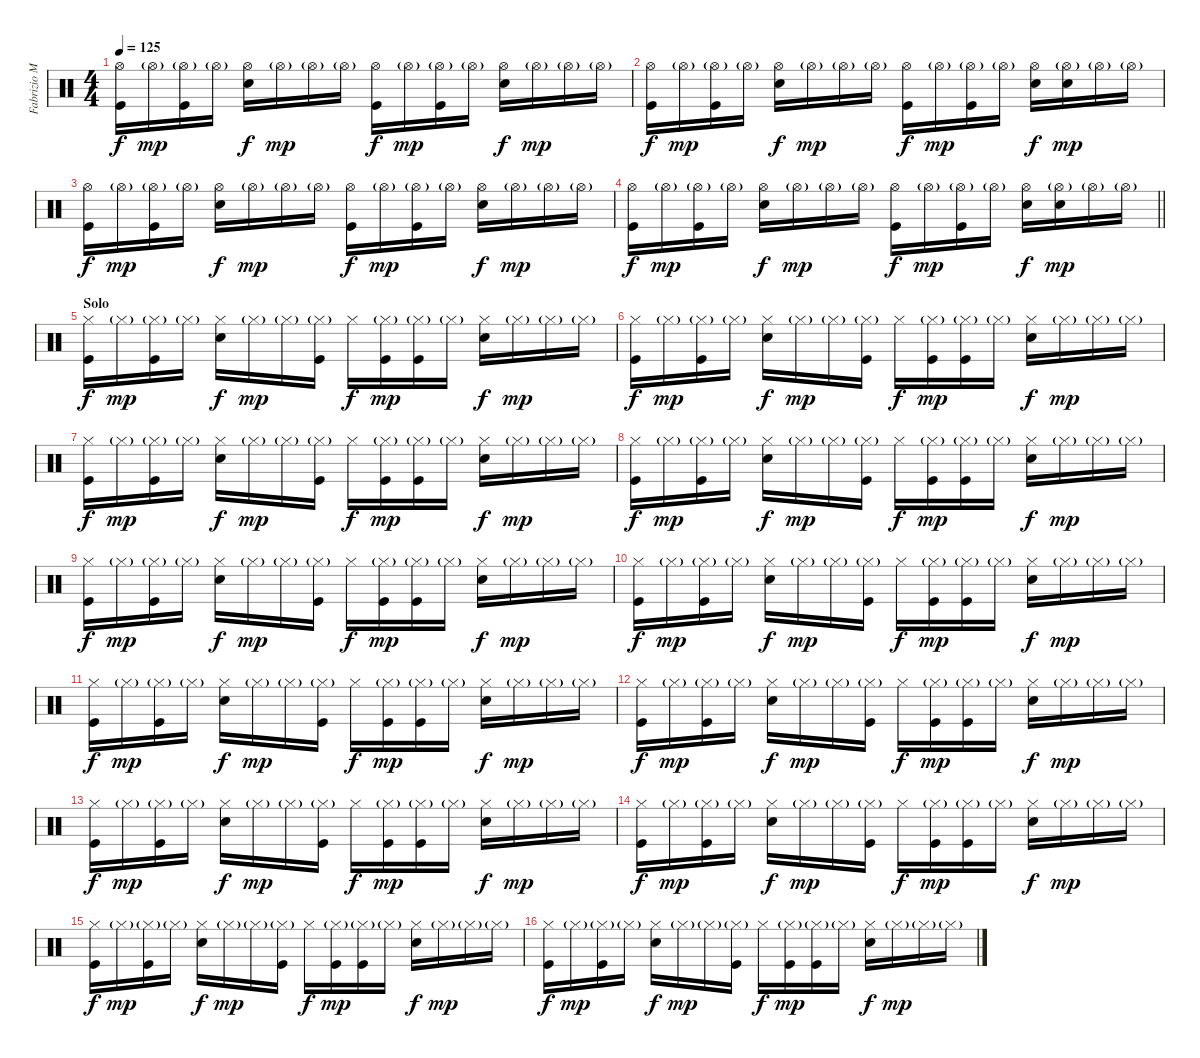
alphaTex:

\track ("Fabrizio Moretti" "Fabrizio M") {instrument percussion}
\staff {score}
\articulation defaults
\ts (4 4)
\tempo 125
\clef neutral
\ks c
("Hi-Hat (open)" "Kick (hit)").16{dy f} "Hi-Hat (open)"{g}.16{dy mp} ("Hi-Hat (open)"{g} "Kick (hit)").16 "Hi-Hat (open)"{g}.16 ("Hi-Hat (open)" "Electric Snare (hit)").16{dy f} "Hi-Hat (open)"{g}.16{dy mp} "Hi-Hat (open)"{g}.16 "Hi-Hat (open)"{g}.16 ("Hi-Hat (open)" "Kick (hit)").16{dy f} "Hi-Hat (open)"{g}.16{dy mp} ("Hi-Hat (open)"{g} "Kick (hit)").16 "Hi-Hat (open)"{g}.16 ("Hi-Hat (open)" "Electric Snare (hit)").16{dy f} "Hi-Hat (open)"{g}.16{dy mp} "Hi-Hat (open)"{g}.16 "Hi-Hat (open)"{g}.16 |
("Hi-Hat (open)" "Kick (hit)").16{dy f} "Hi-Hat (open)"{g}.16{dy mp} ("Hi-Hat (open)"{g} "Kick (hit)").16 "Hi-Hat (open)"{g}.16 ("Hi-Hat (open)" "Electric Snare (hit)").16{dy f} "Hi-Hat (open)"{g}.16{dy mp} "Hi-Hat (open)"{g}.16 "Hi-Hat (open)"{g}.16 ("Hi-Hat (open)" "Kick (hit)").16{dy f} "Hi-Hat (open)"{g}.16{dy mp} ("Hi-Hat (open)"{g} "Kick (hit)").16 "Hi-Hat (open)"{g}.16 ("Hi-Hat (open)" "Electric Snare (hit)").16{dy f} ("Hi-Hat (open)"{g} "Electric Snare (hit)").16{dy mp} "Hi-Hat (open)"{g}.16 "Hi-Hat (open)"{g}.16 |
("Hi-Hat (open)" "Kick (hit)").16{dy f} "Hi-Hat (open)"{g}.16{dy mp} ("Hi-Hat (open)"{g} "Kick (hit)").16 "Hi-Hat (open)"{g}.16 ("Hi-Hat (open)" "Electric Snare (hit)").16{dy f} "Hi-Hat (open)"{g}.16{dy mp} "Hi-Hat (open)"{g}.16 "Hi-Hat (open)"{g}.16 ("Hi-Hat (open)" "Kick (hit)").16{dy f} "Hi-Hat (open)"{g}.16{dy mp} ("Hi-Hat (open)"{g} "Kick (hit)").16 "Hi-Hat (open)"{g}.16 ("Hi-Hat (open)" "Electric Snare (hit)").16{dy f} "Hi-Hat (open)"{g}.16{dy mp} "Hi-Hat (open)"{g}.16 "Hi-Hat (open)"{g}.16 |
\barLineRight lightlight
("Hi-Hat (open)" "Kick (hit)").16{dy f} "Hi-Hat (open)"{g}.16{dy mp} ("Hi-Hat (open)"{g} "Kick (hit)").16 "Hi-Hat (open)"{g}.16 ("Hi-Hat (open)" "Electric Snare (hit)").16{dy f} "Hi-Hat (open)"{g}.16{dy mp} "Hi-Hat (open)"{g}.16 "Hi-Hat (open)"{g}.16 ("Hi-Hat (open)" "Kick (hit)").16{dy f} "Hi-Hat (open)"{g}.16{dy mp} ("Hi-Hat (open)"{g} "Kick (hit)").16 "Hi-Hat (open)"{g}.16 ("Hi-Hat (open)" "Electric Snare (hit)").16{dy f} ("Hi-Hat (open)"{g} "Electric Snare (hit)").16{dy mp} "Hi-Hat (open)"{g}.16 "Hi-Hat (open)"{g}.16 |
\section ("" "Solo")
("Hi-Hat (closed)" "Kick (hit)").16{dy f} "Hi-Hat (closed)"{g}.16{dy mp} ("Hi-Hat (closed)"{g} "Kick (hit)").16 "Hi-Hat (closed)"{g}.16 ("Hi-Hat (closed)" "Electric Snare (hit)").16{dy f} "Hi-Hat (closed)"{g}.16{dy mp} "Hi-Hat (closed)"{g}.16 ("Hi-Hat (closed)"{g} "Kick (hit)").16 "Hi-Hat (closed)".16{dy f} ("Hi-Hat (closed)"{g} "Kick (hit)").16{dy mp} ("Hi-Hat (closed)"{g} "Kick (hit)").16 "Hi-Hat (closed)"{g}.16 ("Hi-Hat (closed)" "Electric Snare (hit)").16{dy f} "Hi-Hat (closed)"{g}.16{dy mp} "Hi-Hat (closed)"{g}.16 "Hi-Hat (closed)"{g}.16 |
("Hi-Hat (closed)" "Kick (hit)").16{dy f} "Hi-Hat (closed)"{g}.16{dy mp} ("Hi-Hat (closed)"{g} "Kick (hit)").16 "Hi-Hat (closed)"{g}.16 ("Hi-Hat (closed)" "Electric Snare (hit)").16{dy f} "Hi-Hat (closed)"{g}.16{dy mp} "Hi-Hat (closed)"{g}.16 ("Hi-Hat (closed)"{g} "Kick (hit)").16 "Hi-Hat (closed)".16{dy f} ("Hi-Hat (closed)"{g} "Kick (hit)").16{dy mp} ("Hi-Hat (closed)"{g} "Kick (hit)").16 "Hi-Hat (closed)"{g}.16 ("Hi-Hat (closed)" "Electric Snare (hit)").16{dy f} "Hi-Hat (closed)"{g}.16{dy mp} "Hi-Hat (closed)"{g}.16 "Hi-Hat (closed)"{g}.16 |
("Hi-Hat (closed)" "Kick (hit)").16{dy f} "Hi-Hat (closed)"{g}.16{dy mp} ("Hi-Hat (closed)"{g} "Kick (hit)").16 "Hi-Hat (closed)"{g}.16 ("Hi-Hat (closed)" "Electric Snare (hit)").16{dy f} "Hi-Hat (closed)"{g}.16{dy mp} "Hi-Hat (closed)"{g}.16 ("Hi-Hat (closed)"{g} "Kick (hit)").16 "Hi-Hat (closed)".16{dy f} ("Hi-Hat (closed)"{g} "Kick (hit)").16{dy mp} ("Hi-Hat (closed)"{g} "Kick (hit)").16 "Hi-Hat (closed)"{g}.16 ("Hi-Hat (closed)" "Electric Snare (hit)").16{dy f} "Hi-Hat (closed)"{g}.16{dy mp} "Hi-Hat (closed)"{g}.16 "Hi-Hat (closed)"{g}.16 |
("Hi-Hat (closed)" "Kick (hit)").16{dy f} "Hi-Hat (closed)"{g}.16{dy mp} ("Hi-Hat (closed)"{g} "Kick (hit)").16 "Hi-Hat (closed)"{g}.16 ("Hi-Hat (closed)" "Electric Snare (hit)").16{dy f} "Hi-Hat (closed)"{g}.16{dy mp} "Hi-Hat (closed)"{g}.16 ("Hi-Hat (closed)"{g} "Kick (hit)").16 "Hi-Hat (closed)".16{dy f} ("Hi-Hat (closed)"{g} "Kick (hit)").16{dy mp} ("Hi-Hat (closed)"{g} "Kick (hit)").16 "Hi-Hat (closed)"{g}.16 ("Hi-Hat (closed)" "Electric Snare (hit)").16{dy f} "Hi-Hat (closed)"{g}.16{dy mp} "Hi-Hat (closed)"{g}.16 "Hi-Hat (closed)"{g}.16 |
("Hi-Hat (closed)" "Kick (hit)").16{dy f} "Hi-Hat (closed)"{g}.16{dy mp} ("Hi-Hat (closed)"{g} "Kick (hit)").16 "Hi-Hat (closed)"{g}.16 ("Hi-Hat (closed)" "Electric Snare (hit)").16{dy f} "Hi-Hat (closed)"{g}.16{dy mp} "Hi-Hat (closed)"{g}.16 ("Hi-Hat (closed)"{g} "Kick (hit)").16 "Hi-Hat (closed)".16{dy f} ("Hi-Hat (closed)"{g} "Kick (hit)").16{dy mp} ("Hi-Hat (closed)"{g} "Kick (hit)").16 "Hi-Hat (closed)"{g}.16 ("Hi-Hat (closed)" "Electric Snare (hit)").16{dy f} "Hi-Hat (closed)"{g}.16{dy mp} "Hi-Hat (closed)"{g}.16 "Hi-Hat (closed)"{g}.16 |
("Hi-Hat (closed)" "Kick (hit)").16{dy f} "Hi-Hat (closed)"{g}.16{dy mp} ("Hi-Hat (closed)"{g} "Kick (hit)").16 "Hi-Hat (closed)"{g}.16 ("Hi-Hat (closed)" "Electric Snare (hit)").16{dy f} "Hi-Hat (closed)"{g}.16{dy mp} "Hi-Hat (closed)"{g}.16 ("Hi-Hat (closed)"{g} "Kick (hit)").16 "Hi-Hat (closed)".16{dy f} ("Hi-Hat (closed)"{g} "Kick (hit)").16{dy mp} ("Hi-Hat (closed)"{g} "Kick (hit)").16 "Hi-Hat (closed)"{g}.16 ("Hi-Hat (closed)" "Electric Snare (hit)").16{dy f} "Hi-Hat (closed)"{g}.16{dy mp} "Hi-Hat (closed)"{g}.16 "Hi-Hat (closed)"{g}.16 |
("Hi-Hat (closed)" "Kick (hit)").16{dy f} "Hi-Hat (closed)"{g}.16{dy mp} ("Hi-Hat (closed)"{g} "Kick (hit)").16 "Hi-Hat (closed)"{g}.16 ("Hi-Hat (closed)" "Electric Snare (hit)").16{dy f} "Hi-Hat (closed)"{g}.16{dy mp} "Hi-Hat (closed)"{g}.16 ("Hi-Hat (closed)"{g} "Kick (hit)").16 "Hi-Hat (closed)".16{dy f} ("Hi-Hat (closed)"{g} "Kick (hit)").16{dy mp} ("Hi-Hat (closed)"{g} "Kick (hit)").16 "Hi-Hat (closed)"{g}.16 ("Hi-Hat (closed)" "Electric Snare (hit)").16{dy f} "Hi-Hat (closed)"{g}.16{dy mp} "Hi-Hat (closed)"{g}.16 "Hi-Hat (closed)"{g}.16 |
("Hi-Hat (closed)" "Kick (hit)").16{dy f} "Hi-Hat (closed)"{g}.16{dy mp} ("Hi-Hat (closed)"{g} "Kick (hit)").16 "Hi-Hat (closed)"{g}.16 ("Hi-Hat (closed)" "Electric Snare (hit)").16{dy f} "Hi-Hat (closed)"{g}.16{dy mp} "Hi-Hat (closed)"{g}.16 ("Hi-Hat (closed)"{g} "Kick (hit)").16 "Hi-Hat (closed)".16{dy f} ("Hi-Hat (closed)"{g} "Kick (hit)").16{dy mp} ("Hi-Hat (closed)"{g} "Kick (hit)").16 "Hi-Hat (closed)"{g}.16 ("Hi-Hat (closed)" "Electric Snare (hit)").16{dy f} "Hi-Hat (closed)"{g}.16{dy mp} "Hi-Hat (closed)"{g}.16 "Hi-Hat (closed)"{g}.16 |
("Hi-Hat (closed)" "Kick (hit)").16{dy f} "Hi-Hat (closed)"{g}.16{dy mp} ("Hi-Hat (closed)"{g} "Kick (hit)").16 "Hi-Hat (closed)"{g}.16 ("Hi-Hat (closed)" "Electric Snare (hit)").16{dy f} "Hi-Hat (closed)"{g}.16{dy mp} "Hi-Hat (closed)"{g}.16 ("Hi-Hat (closed)"{g} "Kick (hit)").16 "Hi-Hat (closed)".16{dy f} ("Hi-Hat (closed)"{g} "Kick (hit)").16{dy mp} ("Hi-Hat (closed)"{g} "Kick (hit)").16 "Hi-Hat (closed)"{g}.16 ("Hi-Hat (closed)" "Electric Snare (hit)").16{dy f} "Hi-Hat (closed)"{g}.16{dy mp} "Hi-Hat (closed)"{g}.16 "Hi-Hat (closed)"{g}.16 |
("Hi-Hat (closed)" "Kick (hit)").16{dy f} "Hi-Hat (closed)"{g}.16{dy mp} ("Hi-Hat (closed)"{g} "Kick (hit)").16 "Hi-Hat (closed)"{g}.16 ("Hi-Hat (closed)" "Electric Snare (hit)").16{dy f} "Hi-Hat (closed)"{g}.16{dy mp} "Hi-Hat (closed)"{g}.16 ("Hi-Hat (closed)"{g} "Kick (hit)").16 "Hi-Hat (closed)".16{dy f} ("Hi-Hat (closed)"{g} "Kick (hit)").16{dy mp} ("Hi-Hat (closed)"{g} "Kick (hit)").16 "Hi-Hat (closed)"{g}.16 ("Hi-Hat (closed)" "Electric Snare (hit)").16{dy f} "Hi-Hat (closed)"{g}.16{dy mp} "Hi-Hat (closed)"{g}.16 "Hi-Hat (closed)"{g}.16 |
("Hi-Hat (closed)" "Kick (hit)").16{dy f} "Hi-Hat (closed)"{g}.16{dy mp} ("Hi-Hat (closed)"{g} "Kick (hit)").16 "Hi-Hat (closed)"{g}.16 ("Hi-Hat (closed)" "Electric Snare (hit)").16{dy f} "Hi-Hat (closed)"{g}.16{dy mp} "Hi-Hat (closed)"{g}.16 ("Hi-Hat (closed)"{g} "Kick (hit)").16 "Hi-Hat (closed)".16{dy f} ("Hi-Hat (closed)"{g} "Kick (hit)").16{dy mp} ("Hi-Hat (closed)"{g} "Kick (hit)").16 "Hi-Hat (closed)"{g}.16 ("Hi-Hat (closed)" "Electric Snare (hit)").16{dy f} "Hi-Hat (closed)"{g}.16{dy mp} "Hi-Hat (closed)"{g}.16 "Hi-Hat (closed)"{g}.16 |
("Hi-Hat (closed)" "Kick (hit)").16{dy f} "Hi-Hat (closed)"{g}.16{dy mp} ("Hi-Hat (closed)"{g} "Kick (hit)").16 "Hi-Hat (closed)"{g}.16 ("Hi-Hat (closed)" "Electric Snare (hit)").16{dy f} "Hi-Hat (closed)"{g}.16{dy mp} "Hi-Hat (closed)"{g}.16 ("Hi-Hat (closed)"{g} "Kick (hit)").16 "Hi-Hat (closed)".16{dy f} ("Hi-Hat (closed)"{g} "Kick (hit)").16{dy mp} ("Hi-Hat (closed)"{g} "Kick (hit)").16 "Hi-Hat (closed)"{g}.16 ("Hi-Hat (closed)" "Electric Snare (hit)").16{dy f} "Hi-Hat (closed)"{g}.16{dy mp} "Hi-Hat (closed)"{g}.16 "Hi-Hat (closed)"{g}.16
